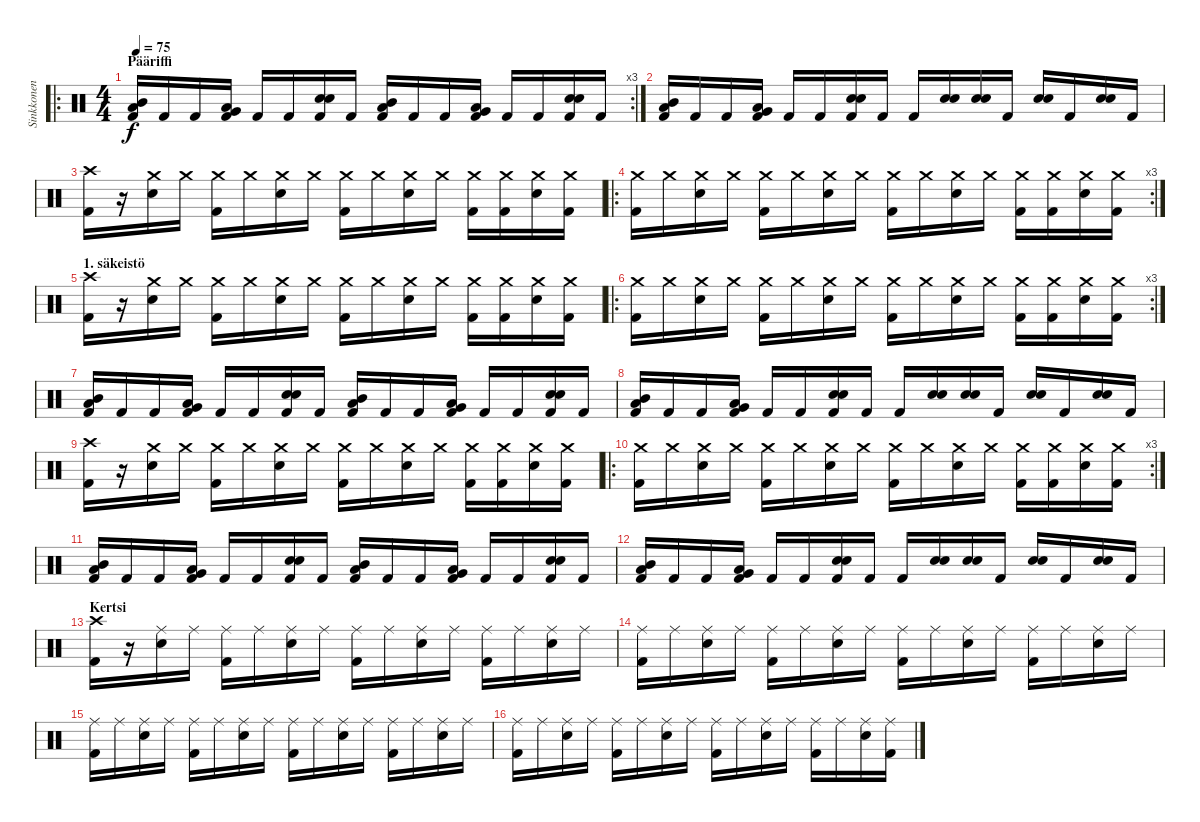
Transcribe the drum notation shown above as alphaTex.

\track ("Sinkkonen" "Sinkkonen") {instrument percussion}
\staff {score}
\articulation defaults
\ro
\rc 3
\ts (4 4)
\section ("" "Pääriffi")
\tempo 75
\clef neutral
\ks c
("Mid Tom (hit)" "Low Tom (hit)" "Kick (hit) 2").16{dy f} "Kick (hit) 2".16 "Kick (hit) 2".16 ("Low Tom (hit)" "Very Low Tom (hit)" "Kick (hit) 2").16 "Kick (hit) 2".16 "Kick (hit) 2".16 ("Electric Snare (hit)" "Electric Snare (hit)" "Kick (hit) 2").16 "Kick (hit) 2".16 ("Mid Tom (hit)" "Low Tom (hit)" "Kick (hit) 2").16 "Kick (hit) 2".16 "Kick (hit) 2".16 ("Low Tom (hit)" "Very Low Tom (hit)" "Kick (hit) 2").16 "Kick (hit) 2".16 "Kick (hit) 2".16 ("Electric Snare (hit)" "Electric Snare (hit)" "Kick (hit) 2").16 "Kick (hit) 2".16 |
("Mid Tom (hit)" "Low Tom (hit)" "Kick (hit) 2").16 "Kick (hit) 2".16 "Kick (hit) 2".16 ("Low Tom (hit)" "Very Low Tom (hit)" "Kick (hit) 2").16 "Kick (hit) 2".16 "Kick (hit) 2".16 ("Electric Snare (hit)" "Electric Snare (hit)" "Kick (hit) 2").16 "Kick (hit) 2".16 "Kick (hit) 2".16 ("Electric Snare (hit)" "Electric Snare (hit)").16 ("Electric Snare (hit)" "Electric Snare (hit)").16 "Kick (hit) 2".16 ("Electric Snare (hit)" "Electric Snare (hit)").16 "Kick (hit) 2".16 ("Electric Snare (hit)" "Electric Snare (hit)").16 "Kick (hit) 2".16 |
("Crash high (hit)" "Kick (hit) 2").16 r.16 ("Crash medium (hit)" "Electric Snare (hit)").16 "Crash medium (hit)".16 ("Crash medium (hit)" "Kick (hit) 2").16 "Crash medium (hit)".16 ("Crash medium (hit)" "Electric Snare (hit)").16 "Crash medium (hit)".16 ("Crash medium (hit)" "Kick (hit) 2").16 "Crash medium (hit)".16 ("Crash medium (hit)" "Electric Snare (hit)").16 "Crash medium (hit)".16 ("Crash medium (hit)" "Kick (hit) 2").16 ("Crash medium (hit)" "Kick (hit) 2").16 ("Crash medium (hit)" "Electric Snare (hit)").16 ("Crash medium (hit)" "Kick (hit) 2").16 |
\ro
\rc 3
("Crash medium (hit)" "Kick (hit) 2").16 "Crash medium (hit)".16 ("Crash medium (hit)" "Electric Snare (hit)").16 "Crash medium (hit)".16 ("Crash medium (hit)" "Kick (hit) 2").16 "Crash medium (hit)".16 ("Crash medium (hit)" "Electric Snare (hit)").16 "Crash medium (hit)".16 ("Crash medium (hit)" "Kick (hit) 2").16 "Crash medium (hit)".16 ("Crash medium (hit)" "Electric Snare (hit)").16 "Crash medium (hit)".16 ("Crash medium (hit)" "Kick (hit) 2").16 ("Crash medium (hit)" "Kick (hit) 2").16 ("Crash medium (hit)" "Electric Snare (hit)").16 ("Crash medium (hit)" "Kick (hit) 2").16 |
\section ("" "1. säkeistö")
("Crash high (hit)" "Kick (hit) 2").16 r.16 ("Crash medium (hit)" "Electric Snare (hit)").16 "Crash medium (hit)".16 ("Crash medium (hit)" "Kick (hit) 2").16 "Crash medium (hit)".16 ("Crash medium (hit)" "Electric Snare (hit)").16 "Crash medium (hit)".16 ("Crash medium (hit)" "Kick (hit) 2").16 "Crash medium (hit)".16 ("Crash medium (hit)" "Electric Snare (hit)").16 "Crash medium (hit)".16 ("Crash medium (hit)" "Kick (hit) 2").16 ("Crash medium (hit)" "Kick (hit) 2").16 ("Crash medium (hit)" "Electric Snare (hit)").16 ("Crash medium (hit)" "Kick (hit) 2").16 |
\ro
\rc 3
("Crash medium (hit)" "Kick (hit) 2").16 "Crash medium (hit)".16 ("Crash medium (hit)" "Electric Snare (hit)").16 "Crash medium (hit)".16 ("Crash medium (hit)" "Kick (hit) 2").16 "Crash medium (hit)".16 ("Crash medium (hit)" "Electric Snare (hit)").16 "Crash medium (hit)".16 ("Crash medium (hit)" "Kick (hit) 2").16 "Crash medium (hit)".16 ("Crash medium (hit)" "Electric Snare (hit)").16 "Crash medium (hit)".16 ("Crash medium (hit)" "Kick (hit) 2").16 ("Crash medium (hit)" "Kick (hit) 2").16 ("Crash medium (hit)" "Electric Snare (hit)").16 ("Crash medium (hit)" "Kick (hit) 2").16 |
("Mid Tom (hit)" "Low Tom (hit)" "Kick (hit) 2").16 "Kick (hit) 2".16 "Kick (hit) 2".16 ("Low Tom (hit)" "Very Low Tom (hit)" "Kick (hit) 2").16 "Kick (hit) 2".16 "Kick (hit) 2".16 ("Electric Snare (hit)" "Electric Snare (hit)" "Kick (hit) 2").16 "Kick (hit) 2".16 ("Mid Tom (hit)" "Low Tom (hit)" "Kick (hit) 2").16 "Kick (hit) 2".16 "Kick (hit) 2".16 ("Low Tom (hit)" "Very Low Tom (hit)" "Kick (hit) 2").16 "Kick (hit) 2".16 "Kick (hit) 2".16 ("Electric Snare (hit)" "Electric Snare (hit)" "Kick (hit) 2").16 "Kick (hit) 2".16 |
("Mid Tom (hit)" "Low Tom (hit)" "Kick (hit) 2").16 "Kick (hit) 2".16 "Kick (hit) 2".16 ("Low Tom (hit)" "Very Low Tom (hit)" "Kick (hit) 2").16 "Kick (hit) 2".16 "Kick (hit) 2".16 ("Electric Snare (hit)" "Electric Snare (hit)" "Kick (hit) 2").16 "Kick (hit) 2".16 "Kick (hit) 2".16 ("Electric Snare (hit)" "Electric Snare (hit)").16 ("Electric Snare (hit)" "Electric Snare (hit)").16 "Kick (hit) 2".16 ("Electric Snare (hit)" "Electric Snare (hit)").16 "Kick (hit) 2".16 ("Electric Snare (hit)" "Electric Snare (hit)").16 "Kick (hit) 2".16 |
("Crash high (hit)" "Kick (hit) 2").16 r.16 ("Crash medium (hit)" "Electric Snare (hit)").16 "Crash medium (hit)".16 ("Crash medium (hit)" "Kick (hit) 2").16 "Crash medium (hit)".16 ("Crash medium (hit)" "Electric Snare (hit)").16 "Crash medium (hit)".16 ("Crash medium (hit)" "Kick (hit) 2").16 "Crash medium (hit)".16 ("Crash medium (hit)" "Electric Snare (hit)").16 "Crash medium (hit)".16 ("Crash medium (hit)" "Kick (hit) 2").16 ("Crash medium (hit)" "Kick (hit) 2").16 ("Crash medium (hit)" "Electric Snare (hit)").16 ("Crash medium (hit)" "Kick (hit) 2").16 |
\ro
\rc 3
("Crash medium (hit)" "Kick (hit) 2").16 "Crash medium (hit)".16 ("Crash medium (hit)" "Electric Snare (hit)").16 "Crash medium (hit)".16 ("Crash medium (hit)" "Kick (hit) 2").16 "Crash medium (hit)".16 ("Crash medium (hit)" "Electric Snare (hit)").16 "Crash medium (hit)".16 ("Crash medium (hit)" "Kick (hit) 2").16 "Crash medium (hit)".16 ("Crash medium (hit)" "Electric Snare (hit)").16 "Crash medium (hit)".16 ("Crash medium (hit)" "Kick (hit) 2").16 ("Crash medium (hit)" "Kick (hit) 2").16 ("Crash medium (hit)" "Electric Snare (hit)").16 ("Crash medium (hit)" "Kick (hit) 2").16 |
("Mid Tom (hit)" "Low Tom (hit)" "Kick (hit) 2").16 "Kick (hit) 2".16 "Kick (hit) 2".16 ("Low Tom (hit)" "Very Low Tom (hit)" "Kick (hit) 2").16 "Kick (hit) 2".16 "Kick (hit) 2".16 ("Electric Snare (hit)" "Electric Snare (hit)" "Kick (hit) 2").16 "Kick (hit) 2".16 ("Mid Tom (hit)" "Low Tom (hit)" "Kick (hit) 2").16 "Kick (hit) 2".16 "Kick (hit) 2".16 ("Low Tom (hit)" "Very Low Tom (hit)" "Kick (hit) 2").16 "Kick (hit) 2".16 "Kick (hit) 2".16 ("Electric Snare (hit)" "Electric Snare (hit)" "Kick (hit) 2").16 "Kick (hit) 2".16 |
("Mid Tom (hit)" "Low Tom (hit)" "Kick (hit) 2").16 "Kick (hit) 2".16 "Kick (hit) 2".16 ("Low Tom (hit)" "Very Low Tom (hit)" "Kick (hit) 2").16 "Kick (hit) 2".16 "Kick (hit) 2".16 ("Electric Snare (hit)" "Electric Snare (hit)" "Kick (hit) 2").16 "Kick (hit) 2".16 "Kick (hit) 2".16 ("Electric Snare (hit)" "Electric Snare (hit)").16 ("Electric Snare (hit)" "Electric Snare (hit)").16 "Kick (hit) 2".16 ("Electric Snare (hit)" "Electric Snare (hit)").16 "Kick (hit) 2".16 ("Electric Snare (hit)" "Electric Snare (hit)").16 "Kick (hit) 2".16 |
\section ("" "Kertsi")
("Crash high (hit)" "Kick (hit) 2").16 r.16 ("Ride (middle)" "Electric Snare (hit)").16 "Ride (middle)".16 ("Ride (middle)" "Kick (hit) 2").16 "Ride (middle)".16 ("Ride (middle)" "Electric Snare (hit)").16 "Ride (middle)".16 ("Ride (middle)" "Kick (hit) 2").16 "Ride (middle)".16 ("Ride (middle)" "Electric Snare (hit)").16 "Ride (middle)".16 ("Ride (middle)" "Kick (hit) 2").16 "Ride (middle)".16 ("Ride (middle)" "Electric Snare (hit)").16 "Ride (middle)".16 |
("Ride (middle)" "Kick (hit) 2").16 "Ride (middle)".16 ("Ride (middle)" "Electric Snare (hit)").16 "Ride (middle)".16 ("Ride (middle)" "Kick (hit) 2").16 "Ride (middle)".16 ("Ride (middle)" "Electric Snare (hit)").16 "Ride (middle)".16 ("Ride (middle)" "Kick (hit) 2").16 "Ride (middle)".16 ("Ride (middle)" "Electric Snare (hit)").16 "Ride (middle)".16 ("Ride (middle)" "Kick (hit) 2").16 "Ride (middle)".16 ("Ride (middle)" "Electric Snare (hit)").16 "Ride (middle)".16 |
("Ride (middle)" "Kick (hit) 2").16 "Ride (middle)".16 ("Ride (middle)" "Electric Snare (hit)").16 "Ride (middle)".16 ("Ride (middle)" "Kick (hit) 2").16 "Ride (middle)".16 ("Ride (middle)" "Electric Snare (hit)").16 "Ride (middle)".16 ("Ride (middle)" "Kick (hit) 2").16 "Ride (middle)".16 ("Ride (middle)" "Electric Snare (hit)").16 "Ride (middle)".16 ("Ride (middle)" "Kick (hit) 2").16 "Ride (middle)".16 ("Ride (middle)" "Electric Snare (hit)").16 "Ride (middle)".16 |
("Ride (middle)" "Kick (hit) 2").16 "Ride (middle)".16 ("Ride (middle)" "Electric Snare (hit)").16 "Ride (middle)".16 ("Ride (middle)" "Kick (hit) 2").16 "Ride (middle)".16 ("Ride (middle)" "Electric Snare (hit)").16 "Ride (middle)".16 ("Ride (middle)" "Kick (hit) 2").16 "Ride (middle)".16 ("Ride (middle)" "Electric Snare (hit)").16 "Ride (middle)".16 ("Ride (middle)" "Kick (hit) 2").16 "Ride (middle)".16 ("Ride (middle)" "Electric Snare (hit)").16 ("Ride (middle)" "Kick (hit) 2").16
